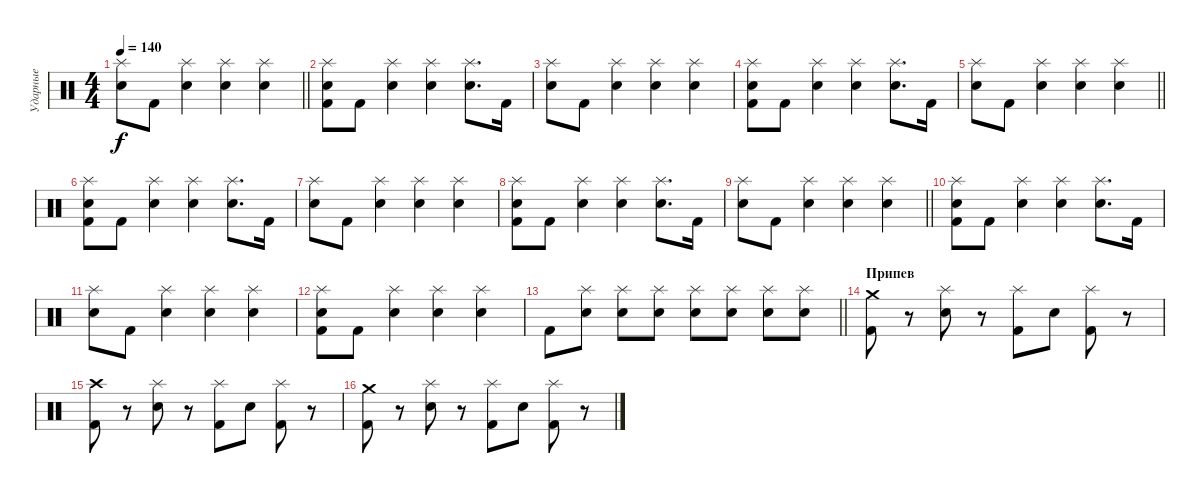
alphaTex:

\track ("Ударные" "Ударные") {instrument percussion}
\staff {score}
\articulation defaults
\ts (4 4)
\tempo 140
\clef neutral
\barLineRight lightlight
\ks c
("Splash (hit)" "Electric Snare (hit)").8{dy f} "Kick (hit) 2".8 ("Splash (hit)" "Electric Snare (hit)").4 ("Splash (hit)" "Electric Snare (hit)").4 ("Splash (hit)" "Electric Snare (hit)").4 |
("Splash (hit)" "Electric Snare (hit)" "Kick (hit) 2").8 "Kick (hit) 2".8 ("Splash (hit)" "Electric Snare (hit)").4 ("Splash (hit)" "Electric Snare (hit)").4 ("Splash (hit)" "Electric Snare (hit)").8{d} "Kick (hit) 2".16 |
("Splash (hit)" "Electric Snare (hit)").8 "Kick (hit) 2".8 ("Splash (hit)" "Electric Snare (hit)").4 ("Splash (hit)" "Electric Snare (hit)").4 ("Splash (hit)" "Electric Snare (hit)").4 |
("Splash (hit)" "Electric Snare (hit)" "Kick (hit) 2").8 "Kick (hit) 2".8 ("Splash (hit)" "Electric Snare (hit)").4 ("Splash (hit)" "Electric Snare (hit)").4 ("Splash (hit)" "Electric Snare (hit)").8{d} "Kick (hit) 2".16 |
\barLineRight lightlight
("Splash (hit)" "Electric Snare (hit)").8 "Kick (hit) 2".8 ("Splash (hit)" "Electric Snare (hit)").4 ("Splash (hit)" "Electric Snare (hit)").4 ("Splash (hit)" "Electric Snare (hit)").4 |
("Splash (hit)" "Electric Snare (hit)" "Kick (hit) 2").8 "Kick (hit) 2".8 ("Splash (hit)" "Electric Snare (hit)").4 ("Splash (hit)" "Electric Snare (hit)").4 ("Splash (hit)" "Electric Snare (hit)").8{d} "Kick (hit) 2".16 |
("Splash (hit)" "Electric Snare (hit)").8 "Kick (hit) 2".8 ("Splash (hit)" "Electric Snare (hit)").4 ("Splash (hit)" "Electric Snare (hit)").4 ("Splash (hit)" "Electric Snare (hit)").4 |
("Splash (hit)" "Electric Snare (hit)" "Kick (hit) 2").8 "Kick (hit) 2".8 ("Splash (hit)" "Electric Snare (hit)").4 ("Splash (hit)" "Electric Snare (hit)").4 ("Splash (hit)" "Electric Snare (hit)").8{d} "Kick (hit) 2".16 |
\barLineRight lightlight
("Splash (hit)" "Electric Snare (hit)").8 "Kick (hit) 2".8 ("Splash (hit)" "Electric Snare (hit)").4 ("Splash (hit)" "Electric Snare (hit)").4 ("Splash (hit)" "Electric Snare (hit)").4 |
("Splash (hit)" "Electric Snare (hit)" "Kick (hit) 2").8 "Kick (hit) 2".8 ("Splash (hit)" "Electric Snare (hit)").4 ("Splash (hit)" "Electric Snare (hit)").4 ("Splash (hit)" "Electric Snare (hit)").8{d} "Kick (hit) 2".16 |
("Splash (hit)" "Electric Snare (hit)").8 "Kick (hit) 2".8 ("Splash (hit)" "Electric Snare (hit)").4 ("Splash (hit)" "Electric Snare (hit)").4 ("Splash (hit)" "Electric Snare (hit)").4 |
("Splash (hit)" "Electric Snare (hit)" "Kick (hit) 2").8 "Kick (hit) 2".8 ("Splash (hit)" "Electric Snare (hit)").4 ("Splash (hit)" "Electric Snare (hit)").4 ("Splash (hit)" "Electric Snare (hit)").4 |
\barLineRight lightlight "Kick (hit) 2".8
("Splash (hit)" "Electric Snare (hit)").8 ("Splash (hit)" "Electric Snare (hit)").8 ("Splash (hit)" "Electric Snare (hit)").8 ("Splash (hit)" "Electric Snare (hit)").8 ("Splash (hit)" "Electric Snare (hit)").8 ("Splash (hit)" "Electric Snare (hit)").8 ("Splash (hit)" "Electric Snare (hit)").8 |
\section ("" "Припев")
("Crash medium (hit)" "Kick (hit) 2").8 r.8 ("Splash (hit)" "Electric Snare (hit)").8 r.8 ("Splash (hit)" "Kick (hit) 2").8 "Electric Snare (hit)".8 ("Splash (hit)" "Kick (hit) 2").8 r.8 |
("Crash high (hit)" "Kick (hit) 2").8 r.8 ("Splash (hit)" "Electric Snare (hit)").8 r.8 ("Splash (hit)" "Kick (hit) 2").8 "Electric Snare (hit)".8 ("Splash (hit)" "Kick (hit) 2").8 r.8 |
("Crash medium (hit)" "Kick (hit) 2").8 r.8 ("Splash (hit)" "Electric Snare (hit)").8 r.8 ("Splash (hit)" "Kick (hit) 2").8 "Electric Snare (hit)".8 ("Splash (hit)" "Kick (hit) 2").8 r.8
